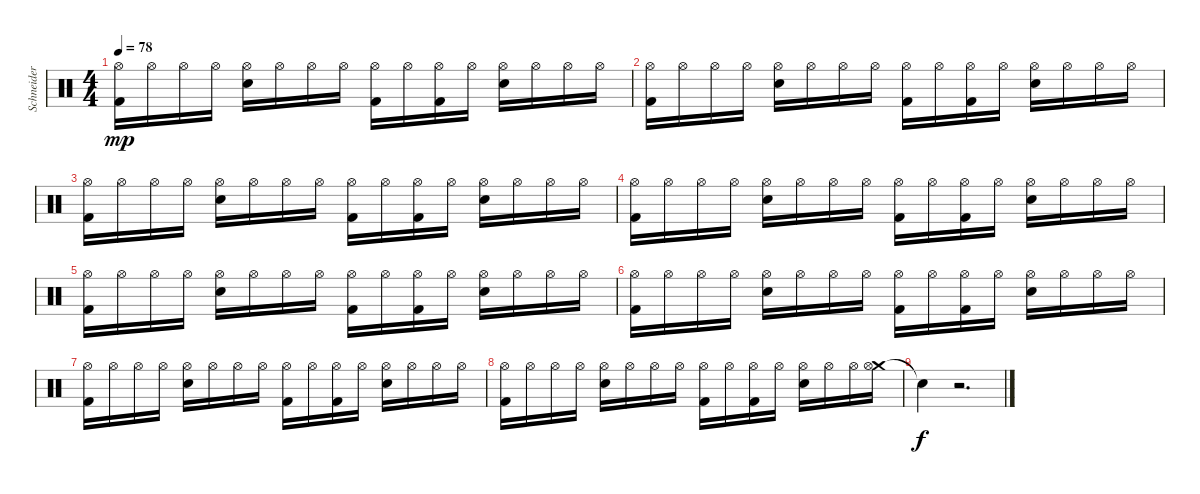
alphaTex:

\track ("Schneider" "Schneider") {instrument percussion}
\staff {score}
\articulation defaults
\ts (4 4)
\tempo 78
\clef neutral
\ks c
("Kick (hit) 2" "Hi-Hat (open)").16{dy mp} "Hi-Hat (open)".16 "Hi-Hat (open)".16 "Hi-Hat (open)".16 ("Electric Snare (hit)" "Hi-Hat (open)").16 "Hi-Hat (open)".16 "Hi-Hat (open)".16 "Hi-Hat (open)".16 ("Kick (hit) 2" "Hi-Hat (open)").16 "Hi-Hat (open)".16 ("Kick (hit) 2" "Hi-Hat (open)").16 "Hi-Hat (open)".16 ("Electric Snare (hit)" "Hi-Hat (open)").16 "Hi-Hat (open)".16 "Hi-Hat (open)".16 "Hi-Hat (open)".16 |
("Kick (hit) 2" "Hi-Hat (open)").16 "Hi-Hat (open)".16 "Hi-Hat (open)".16 "Hi-Hat (open)".16 ("Electric Snare (hit)" "Hi-Hat (open)").16 "Hi-Hat (open)".16 "Hi-Hat (open)".16 "Hi-Hat (open)".16 ("Kick (hit) 2" "Hi-Hat (open)").16 "Hi-Hat (open)".16 ("Kick (hit) 2" "Hi-Hat (open)").16 "Hi-Hat (open)".16 ("Electric Snare (hit)" "Hi-Hat (open)").16 "Hi-Hat (open)".16 "Hi-Hat (open)".16 "Hi-Hat (open)".16 |
("Kick (hit) 2" "Hi-Hat (open)").16 "Hi-Hat (open)".16 "Hi-Hat (open)".16 "Hi-Hat (open)".16 ("Electric Snare (hit)" "Hi-Hat (open)").16 "Hi-Hat (open)".16 "Hi-Hat (open)".16 "Hi-Hat (open)".16 ("Kick (hit) 2" "Hi-Hat (open)").16 "Hi-Hat (open)".16 ("Kick (hit) 2" "Hi-Hat (open)").16 "Hi-Hat (open)".16 ("Electric Snare (hit)" "Hi-Hat (open)").16 "Hi-Hat (open)".16 "Hi-Hat (open)".16 "Hi-Hat (open)".16 |
("Kick (hit) 2" "Hi-Hat (open)").16 "Hi-Hat (open)".16 "Hi-Hat (open)".16 "Hi-Hat (open)".16 ("Electric Snare (hit)" "Hi-Hat (open)").16 "Hi-Hat (open)".16 "Hi-Hat (open)".16 "Hi-Hat (open)".16 ("Kick (hit) 2" "Hi-Hat (open)").16 "Hi-Hat (open)".16 ("Kick (hit) 2" "Hi-Hat (open)").16 "Hi-Hat (open)".16 ("Electric Snare (hit)" "Hi-Hat (open)").16 "Hi-Hat (open)".16 "Hi-Hat (open)".16 "Hi-Hat (open)".16 |
("Kick (hit) 2" "Hi-Hat (open)").16 "Hi-Hat (open)".16 "Hi-Hat (open)".16 "Hi-Hat (open)".16 ("Electric Snare (hit)" "Hi-Hat (open)").16 "Hi-Hat (open)".16 "Hi-Hat (open)".16 "Hi-Hat (open)".16 ("Kick (hit) 2" "Hi-Hat (open)").16 "Hi-Hat (open)".16 ("Kick (hit) 2" "Hi-Hat (open)").16 "Hi-Hat (open)".16 ("Electric Snare (hit)" "Hi-Hat (open)").16 "Hi-Hat (open)".16 "Hi-Hat (open)".16 "Hi-Hat (open)".16 |
("Kick (hit) 2" "Hi-Hat (open)").16 "Hi-Hat (open)".16 "Hi-Hat (open)".16 "Hi-Hat (open)".16 ("Electric Snare (hit)" "Hi-Hat (open)").16 "Hi-Hat (open)".16 "Hi-Hat (open)".16 "Hi-Hat (open)".16 ("Kick (hit) 2" "Hi-Hat (open)").16 "Hi-Hat (open)".16 ("Kick (hit) 2" "Hi-Hat (open)").16 "Hi-Hat (open)".16 ("Electric Snare (hit)" "Hi-Hat (open)").16 "Hi-Hat (open)".16 "Hi-Hat (open)".16 "Hi-Hat (open)".16 |
("Kick (hit) 2" "Hi-Hat (open)").16 "Hi-Hat (open)".16 "Hi-Hat (open)".16 "Hi-Hat (open)".16 ("Electric Snare (hit)" "Hi-Hat (open)").16 "Hi-Hat (open)".16 "Hi-Hat (open)".16 "Hi-Hat (open)".16 ("Kick (hit) 2" "Hi-Hat (open)").16 "Hi-Hat (open)".16 ("Kick (hit) 2" "Hi-Hat (open)").16 "Hi-Hat (open)".16 ("Electric Snare (hit)" "Hi-Hat (open)").16 "Hi-Hat (open)".16 "Hi-Hat (open)".16 "Hi-Hat (open)".16 |
("Kick (hit) 2" "Hi-Hat (open)").16 "Hi-Hat (open)".16 "Hi-Hat (open)".16 "Hi-Hat (open)".16 ("Electric Snare (hit)" "Hi-Hat (open)").16 "Hi-Hat (open)".16 "Hi-Hat (open)".16 "Hi-Hat (open)".16 ("Kick (hit) 2" "Hi-Hat (open)").16 "Hi-Hat (open)".16 ("Kick (hit) 2" "Hi-Hat (open)").16 "Hi-Hat (open)".16 ("Electric Snare (hit)" "Hi-Hat (open)").16 "Hi-Hat (open)".16 "Hi-Hat (open)".16 ("Crash medium (hit)" "Hi-Hat (open)").16 |
"Snare (hit)"{t}.4{dy f} r.2{d}
